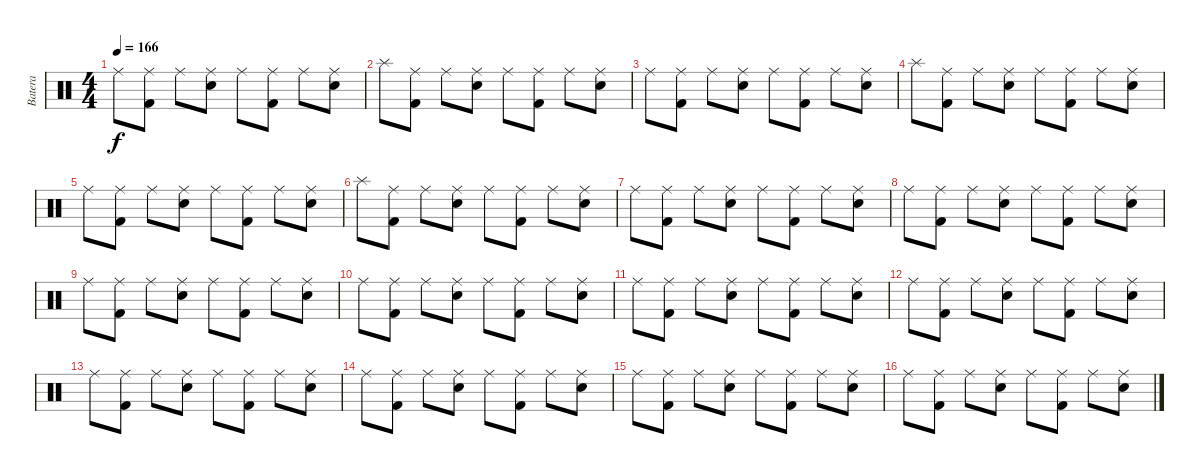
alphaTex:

\track ("Batera" "Batera") {instrument percussion}
\staff {score}
\articulation defaults
\ts (4 4)
\tempo 166
\clef neutral
\ks c "Ride (middle)".8{dy f}
("Ride (middle)" "Kick (hit) 2").8 "Ride (middle)".8 ("Ride (middle)" "Snare (hit) 2").8 "Ride (middle)".8 ("Ride (middle)" "Kick (hit) 2").8 "Ride (middle)".8 ("Ride (middle)" "Snare (hit) 2").8 |
"Splash (hit)".8 ("Ride (middle)" "Kick (hit) 2").8 "Ride (middle)".8 ("Ride (middle)" "Snare (hit) 2").8 "Ride (middle)".8 ("Ride (middle)" "Kick (hit) 2").8 "Ride (middle)".8 ("Ride (middle)" "Snare (hit) 2").8 |
"Ride (middle)".8 ("Ride (middle)" "Kick (hit) 2").8 "Ride (middle)".8 ("Ride (middle)" "Snare (hit) 2").8 "Ride (middle)".8 ("Ride (middle)" "Kick (hit) 2").8 "Ride (middle)".8 ("Ride (middle)" "Snare (hit) 2").8 |
"Splash (hit)".8 ("Ride (middle)" "Kick (hit) 2").8 "Ride (middle)".8 ("Ride (middle)" "Snare (hit) 2").8 "Ride (middle)".8 ("Ride (middle)" "Kick (hit) 2").8 "Ride (middle)".8 ("Ride (middle)" "Snare (hit) 2").8 |
"Ride (middle)".8 ("Ride (middle)" "Kick (hit) 2").8 "Ride (middle)".8 ("Ride (middle)" "Snare (hit) 2").8 "Ride (middle)".8 ("Ride (middle)" "Kick (hit) 2").8 "Ride (middle)".8 ("Ride (middle)" "Snare (hit) 2").8 |
"Splash (hit)".8 ("Ride (middle)" "Kick (hit) 2").8 "Ride (middle)".8 ("Ride (middle)" "Snare (hit) 2").8 "Ride (middle)".8 ("Ride (middle)" "Kick (hit) 2").8 "Ride (middle)".8 ("Ride (middle)" "Snare (hit) 2").8 |
"Ride (middle)".8 ("Ride (middle)" "Kick (hit) 2").8 "Ride (middle)".8 ("Ride (middle)" "Snare (hit) 2").8 "Ride (middle)".8 ("Ride (middle)" "Kick (hit) 2").8 "Ride (middle)".8 ("Ride (middle)" "Snare (hit) 2").8 |
"Ride (middle)".8 ("Ride (middle)" "Kick (hit) 2").8 "Ride (middle)".8 ("Ride (middle)" "Snare (hit) 2").8 "Ride (middle)".8 ("Ride (middle)" "Kick (hit) 2").8 "Ride (middle)".8 ("Ride (middle)" "Snare (hit) 2").8 |
"Ride (middle)".8 ("Ride (middle)" "Kick (hit) 2").8 "Ride (middle)".8 ("Ride (middle)" "Snare (hit) 2").8 "Ride (middle)".8 ("Ride (middle)" "Kick (hit) 2").8 "Ride (middle)".8 ("Ride (middle)" "Snare (hit) 2").8 |
"Ride (middle)".8 ("Ride (middle)" "Kick (hit) 2").8 "Ride (middle)".8 ("Ride (middle)" "Snare (hit) 2").8 "Ride (middle)".8 ("Ride (middle)" "Kick (hit) 2").8 "Ride (middle)".8 ("Ride (middle)" "Snare (hit) 2").8 |
"Ride (middle)".8 ("Ride (middle)" "Kick (hit) 2").8 "Ride (middle)".8 ("Ride (middle)" "Snare (hit) 2").8 "Ride (middle)".8 ("Ride (middle)" "Kick (hit) 2").8 "Ride (middle)".8 ("Ride (middle)" "Snare (hit) 2").8 |
"Ride (middle)".8 ("Ride (middle)" "Kick (hit) 2").8 "Ride (middle)".8 ("Ride (middle)" "Snare (hit) 2").8 "Ride (middle)".8 ("Ride (middle)" "Kick (hit) 2").8 "Ride (middle)".8 ("Ride (middle)" "Snare (hit) 2").8 |
"Ride (middle)".8 ("Ride (middle)" "Kick (hit) 2").8 "Ride (middle)".8 ("Ride (middle)" "Snare (hit) 2").8 "Ride (middle)".8 ("Ride (middle)" "Kick (hit) 2").8 "Ride (middle)".8 ("Ride (middle)" "Snare (hit) 2").8 |
"Ride (middle)".8 ("Ride (middle)" "Kick (hit) 2").8 "Ride (middle)".8 ("Ride (middle)" "Snare (hit) 2").8 "Ride (middle)".8 ("Ride (middle)" "Kick (hit) 2").8 "Ride (middle)".8 ("Ride (middle)" "Snare (hit) 2").8 |
"Ride (middle)".8 ("Ride (middle)" "Kick (hit) 2").8 "Ride (middle)".8 ("Ride (middle)" "Snare (hit) 2").8 "Ride (middle)".8 ("Ride (middle)" "Kick (hit) 2").8 "Ride (middle)".8 ("Ride (middle)" "Snare (hit) 2").8 |
"Ride (middle)".8 ("Ride (middle)" "Kick (hit) 2").8 "Ride (middle)".8 ("Ride (middle)" "Snare (hit) 2").8 "Ride (middle)".8 ("Ride (middle)" "Kick (hit) 2").8 "Ride (middle)".8 ("Ride (middle)" "Snare (hit) 2").8
